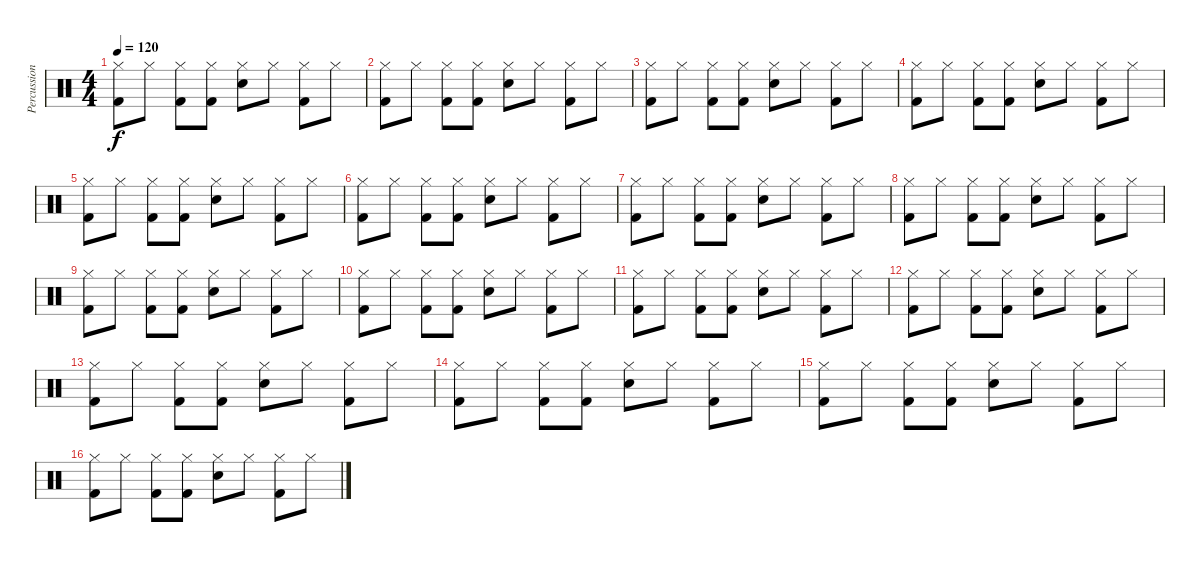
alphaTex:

\track ("Percussions" "Percussion") {instrument percussion}
\staff {score}
\articulation defaults
\ts (4 4)
\tempo 120
\clef neutral
\ks c
("Hi-Hat (closed)" "Kick (hit) 2").8{dy f} "Hi-Hat (closed)".8 ("Hi-Hat (closed)" "Kick (hit) 2").8 ("Hi-Hat (closed)" "Kick (hit) 2").8 ("Hi-Hat (closed)" "Snare (hit) 2").8 "Hi-Hat (closed)".8 ("Hi-Hat (closed)" "Kick (hit) 2").8 "Hi-Hat (closed)".8 |
("Hi-Hat (closed)" "Kick (hit) 2").8 "Hi-Hat (closed)".8 ("Hi-Hat (closed)" "Kick (hit) 2").8 ("Hi-Hat (closed)" "Kick (hit) 2").8 ("Hi-Hat (closed)" "Snare (hit) 2").8 "Hi-Hat (closed)".8 ("Hi-Hat (closed)" "Kick (hit) 2").8 "Hi-Hat (closed)".8 |
("Hi-Hat (closed)" "Kick (hit) 2").8 "Hi-Hat (closed)".8 ("Hi-Hat (closed)" "Kick (hit) 2").8 ("Hi-Hat (closed)" "Kick (hit) 2").8 ("Hi-Hat (closed)" "Snare (hit) 2").8 "Hi-Hat (closed)".8 ("Hi-Hat (closed)" "Kick (hit) 2").8 "Hi-Hat (closed)".8 |
("Hi-Hat (closed)" "Kick (hit) 2").8 "Hi-Hat (closed)".8 ("Hi-Hat (closed)" "Kick (hit) 2").8 ("Hi-Hat (closed)" "Kick (hit) 2").8 ("Hi-Hat (closed)" "Snare (hit) 2").8 "Hi-Hat (closed)".8 ("Hi-Hat (closed)" "Kick (hit) 2").8 "Hi-Hat (closed)".8 |
("Hi-Hat (closed)" "Kick (hit) 2").8 "Hi-Hat (closed)".8 ("Hi-Hat (closed)" "Kick (hit) 2").8 ("Hi-Hat (closed)" "Kick (hit) 2").8 ("Hi-Hat (closed)" "Snare (hit) 2").8 "Hi-Hat (closed)".8 ("Hi-Hat (closed)" "Kick (hit) 2").8 "Hi-Hat (closed)".8 |
("Hi-Hat (closed)" "Kick (hit) 2").8 "Hi-Hat (closed)".8 ("Hi-Hat (closed)" "Kick (hit) 2").8 ("Hi-Hat (closed)" "Kick (hit) 2").8 ("Hi-Hat (closed)" "Snare (hit) 2").8 "Hi-Hat (closed)".8 ("Hi-Hat (closed)" "Kick (hit) 2").8 "Hi-Hat (closed)".8 |
("Hi-Hat (closed)" "Kick (hit) 2").8 "Hi-Hat (closed)".8 ("Hi-Hat (closed)" "Kick (hit) 2").8 ("Hi-Hat (closed)" "Kick (hit) 2").8 ("Hi-Hat (closed)" "Snare (hit) 2").8 "Hi-Hat (closed)".8 ("Hi-Hat (closed)" "Kick (hit) 2").8 "Hi-Hat (closed)".8 |
("Hi-Hat (closed)" "Kick (hit) 2").8 "Hi-Hat (closed)".8 ("Hi-Hat (closed)" "Kick (hit) 2").8 ("Hi-Hat (closed)" "Kick (hit) 2").8 ("Hi-Hat (closed)" "Snare (hit) 2").8 "Hi-Hat (closed)".8 ("Hi-Hat (closed)" "Kick (hit) 2").8 "Hi-Hat (closed)".8 |
("Hi-Hat (closed)" "Kick (hit) 2").8 "Hi-Hat (closed)".8 ("Hi-Hat (closed)" "Kick (hit) 2").8 ("Hi-Hat (closed)" "Kick (hit) 2").8 ("Hi-Hat (closed)" "Snare (hit) 2").8 "Hi-Hat (closed)".8 ("Hi-Hat (closed)" "Kick (hit) 2").8 "Hi-Hat (closed)".8 |
("Hi-Hat (closed)" "Kick (hit) 2").8 "Hi-Hat (closed)".8 ("Hi-Hat (closed)" "Kick (hit) 2").8 ("Hi-Hat (closed)" "Kick (hit) 2").8 ("Hi-Hat (closed)" "Snare (hit) 2").8 "Hi-Hat (closed)".8 ("Hi-Hat (closed)" "Kick (hit) 2").8 "Hi-Hat (closed)".8 |
("Hi-Hat (closed)" "Kick (hit) 2").8 "Hi-Hat (closed)".8 ("Hi-Hat (closed)" "Kick (hit) 2").8 ("Hi-Hat (closed)" "Kick (hit) 2").8 ("Hi-Hat (closed)" "Snare (hit) 2").8 "Hi-Hat (closed)".8 ("Hi-Hat (closed)" "Kick (hit) 2").8 "Hi-Hat (closed)".8 |
("Hi-Hat (closed)" "Kick (hit) 2").8 "Hi-Hat (closed)".8 ("Hi-Hat (closed)" "Kick (hit) 2").8 ("Hi-Hat (closed)" "Kick (hit) 2").8 ("Hi-Hat (closed)" "Snare (hit) 2").8 "Hi-Hat (closed)".8 ("Hi-Hat (closed)" "Kick (hit) 2").8 "Hi-Hat (closed)".8 |
("Hi-Hat (closed)" "Kick (hit) 2").8 "Hi-Hat (closed)".8 ("Hi-Hat (closed)" "Kick (hit) 2").8 ("Hi-Hat (closed)" "Kick (hit) 2").8 ("Hi-Hat (closed)" "Snare (hit) 2").8 "Hi-Hat (closed)".8 ("Hi-Hat (closed)" "Kick (hit) 2").8 "Hi-Hat (closed)".8 |
("Hi-Hat (closed)" "Kick (hit) 2").8 "Hi-Hat (closed)".8 ("Hi-Hat (closed)" "Kick (hit) 2").8 ("Hi-Hat (closed)" "Kick (hit) 2").8 ("Hi-Hat (closed)" "Snare (hit) 2").8 "Hi-Hat (closed)".8 ("Hi-Hat (closed)" "Kick (hit) 2").8 "Hi-Hat (closed)".8 |
("Hi-Hat (closed)" "Kick (hit) 2").8 "Hi-Hat (closed)".8 ("Hi-Hat (closed)" "Kick (hit) 2").8 ("Hi-Hat (closed)" "Kick (hit) 2").8 ("Hi-Hat (closed)" "Snare (hit) 2").8 "Hi-Hat (closed)".8 ("Hi-Hat (closed)" "Kick (hit) 2").8 "Hi-Hat (closed)".8 |
("Hi-Hat (closed)" "Kick (hit) 2").8 "Hi-Hat (closed)".8 ("Hi-Hat (closed)" "Kick (hit) 2").8 ("Hi-Hat (closed)" "Kick (hit) 2").8 ("Hi-Hat (closed)" "Snare (hit) 2").8 "Hi-Hat (closed)".8 ("Hi-Hat (closed)" "Kick (hit) 2").8 "Hi-Hat (closed)".8
